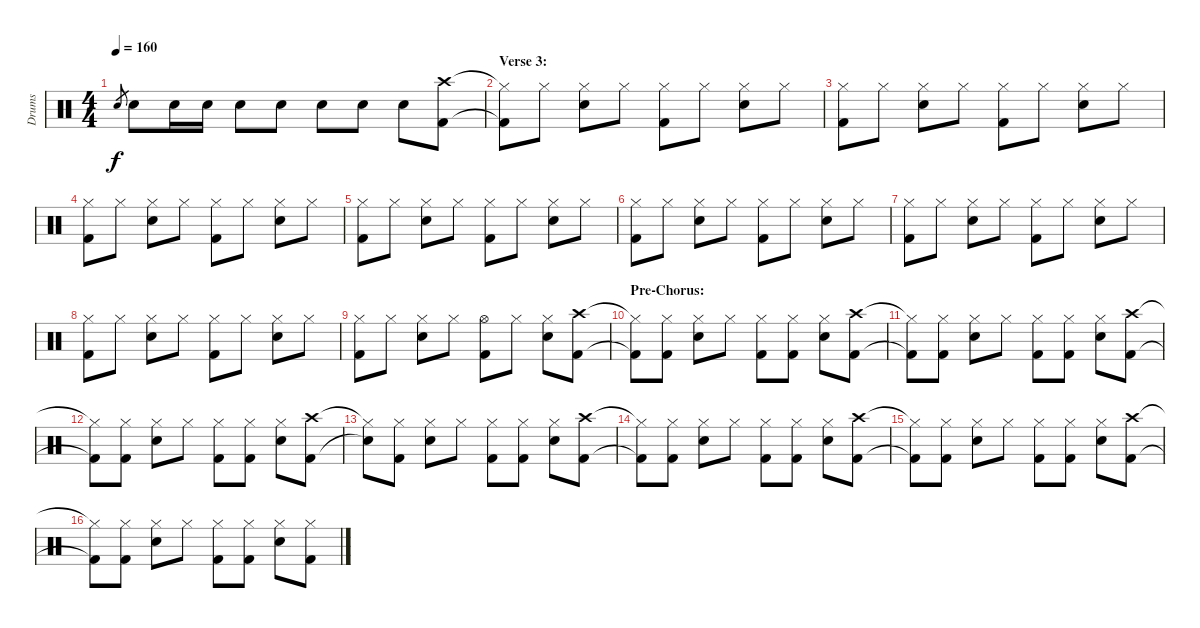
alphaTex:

\track ("Drums" "Drums") {instrument percussion}
\staff {score}
\articulation defaults
\ts (4 4)
\tempo 160
\clef neutral
\ks c "Electric Snare (hit)".8{gr dy f} "Electric Snare (hit)".8 "Electric Snare (hit)".16 "Electric Snare (hit)".16 "Electric Snare (hit)".8 "Electric Snare (hit)".8 "Electric Snare (hit)".8 "Electric Snare (hit)".8 "Electric Snare (hit)".8
("Crash high (hit)" "Kick (hit) 2").8 |
\section ("" "Verse 3:")
("Hi-Hat (closed)"{t} "Kick (hit) 2"{t}).8 "Hi-Hat (closed)".8 ("Hi-Hat (closed)" "Electric Snare (hit)").8 "Hi-Hat (closed)".8 ("Hi-Hat (closed)" "Kick (hit) 2").8 "Hi-Hat (closed)".8 ("Hi-Hat (closed)" "Electric Snare (hit)").8 "Hi-Hat (closed)".8 |
("Hi-Hat (closed)" "Kick (hit) 2").8 "Hi-Hat (closed)".8 ("Hi-Hat (closed)" "Electric Snare (hit)").8 "Hi-Hat (closed)".8 ("Hi-Hat (closed)" "Kick (hit) 2").8 "Hi-Hat (closed)".8 ("Hi-Hat (closed)" "Electric Snare (hit)").8 "Hi-Hat (closed)".8 |
("Hi-Hat (closed)" "Kick (hit) 2").8 "Hi-Hat (closed)".8 ("Hi-Hat (closed)" "Electric Snare (hit)").8 "Hi-Hat (closed)".8 ("Hi-Hat (closed)" "Kick (hit) 2").8 "Hi-Hat (closed)".8 ("Hi-Hat (closed)" "Electric Snare (hit)").8 "Hi-Hat (closed)".8 |
("Hi-Hat (closed)" "Kick (hit) 2").8 "Hi-Hat (closed)".8 ("Hi-Hat (closed)" "Electric Snare (hit)").8 "Hi-Hat (closed)".8 ("Hi-Hat (closed)" "Kick (hit) 2").8 "Hi-Hat (closed)".8 ("Hi-Hat (closed)" "Electric Snare (hit)").8 "Hi-Hat (closed)".8 |
("Hi-Hat (closed)" "Kick (hit) 2").8 "Hi-Hat (closed)".8 ("Hi-Hat (closed)" "Electric Snare (hit)").8 "Hi-Hat (closed)".8 ("Hi-Hat (closed)" "Kick (hit) 2").8 "Hi-Hat (closed)".8 ("Hi-Hat (closed)" "Electric Snare (hit)").8 "Hi-Hat (closed)".8 |
("Hi-Hat (closed)" "Kick (hit) 2").8 "Hi-Hat (closed)".8 ("Hi-Hat (closed)" "Electric Snare (hit)").8 "Hi-Hat (closed)".8 ("Hi-Hat (closed)" "Kick (hit) 2").8 "Hi-Hat (closed)".8 ("Hi-Hat (closed)" "Electric Snare (hit)").8 "Hi-Hat (closed)".8 |
("Hi-Hat (closed)" "Kick (hit) 2").8 "Hi-Hat (closed)".8 ("Hi-Hat (closed)" "Electric Snare (hit)").8 "Hi-Hat (closed)".8 ("Hi-Hat (closed)" "Kick (hit) 2").8 "Hi-Hat (closed)".8 ("Hi-Hat (closed)" "Electric Snare (hit)").8 "Hi-Hat (closed)".8 |
("Hi-Hat (closed)" "Kick (hit) 2").8 "Hi-Hat (closed)".8 ("Hi-Hat (closed)" "Electric Snare (hit)").8 "Hi-Hat (closed)".8 ("Hi-Hat (open)" "Kick (hit) 2").8 "Hi-Hat (closed)".8 ("Hi-Hat (closed)" "Electric Snare (hit)").8 ("Crash high (hit)" "Kick (hit) 2").8 |
\section ("" "Pre-Chorus:")
("Hi-Hat (closed)"{t} "Kick (hit) 2"{t}).8 ("Hi-Hat (closed)" "Kick (hit) 2").8 ("Hi-Hat (closed)" "Electric Snare (hit)").8 "Hi-Hat (closed)".8 ("Hi-Hat (closed)" "Kick (hit) 2").8 ("Hi-Hat (closed)" "Kick (hit) 2").8 ("Hi-Hat (closed)" "Electric Snare (hit)").8 ("Crash high (hit)" "Kick (hit) 2").8 |
("Hi-Hat (closed)"{t} "Kick (hit) 2"{t}).8 ("Hi-Hat (closed)" "Kick (hit) 2").8 ("Hi-Hat (closed)" "Electric Snare (hit)").8 "Hi-Hat (closed)".8 ("Hi-Hat (closed)" "Kick (hit) 2").8 ("Hi-Hat (closed)" "Kick (hit) 2").8 ("Hi-Hat (closed)" "Electric Snare (hit)").8 ("Crash high (hit)" "Kick (hit) 2").8 |
("Hi-Hat (closed)"{t} "Kick (hit) 2"{t}).8 ("Hi-Hat (closed)" "Kick (hit) 2").8 ("Hi-Hat (closed)" "Electric Snare (hit)").8 "Hi-Hat (closed)".8 ("Hi-Hat (closed)" "Kick (hit) 2").8 ("Hi-Hat (closed)" "Kick (hit) 2").8 ("Hi-Hat (closed)" "Electric Snare (hit)").8 ("Crash high (hit)" "Kick (hit) 2").8 |
("Hi-Hat (closed)"{t} "Snare (hit)"{t}).8 ("Hi-Hat (closed)" "Kick (hit) 2").8 ("Hi-Hat (closed)" "Electric Snare (hit)").8 "Hi-Hat (closed)".8 ("Hi-Hat (closed)" "Kick (hit) 2").8 ("Hi-Hat (closed)" "Kick (hit) 2").8 ("Hi-Hat (closed)" "Electric Snare (hit)").8 ("Crash high (hit)" "Kick (hit) 2").8 |
("Hi-Hat (closed)"{t} "Kick (hit) 2"{t}).8 ("Hi-Hat (closed)" "Kick (hit) 2").8 ("Hi-Hat (closed)" "Electric Snare (hit)").8 "Hi-Hat (closed)".8 ("Hi-Hat (closed)" "Kick (hit) 2").8 ("Hi-Hat (closed)" "Kick (hit) 2").8 ("Hi-Hat (closed)" "Electric Snare (hit)").8 ("Crash high (hit)" "Kick (hit) 2").8 |
("Hi-Hat (closed)"{t} "Kick (hit) 2"{t}).8 ("Hi-Hat (closed)" "Kick (hit) 2").8 ("Hi-Hat (closed)" "Electric Snare (hit)").8 "Hi-Hat (closed)".8 ("Hi-Hat (closed)" "Kick (hit) 2").8 ("Hi-Hat (closed)" "Kick (hit) 2").8 ("Hi-Hat (closed)" "Electric Snare (hit)").8 ("Crash high (hit)" "Kick (hit) 2").8 |
("Hi-Hat (closed)"{t} "Kick (hit) 2"{t}).8 ("Hi-Hat (closed)" "Kick (hit) 2").8 ("Hi-Hat (closed)" "Electric Snare (hit)").8 "Hi-Hat (closed)".8 ("Hi-Hat (closed)" "Kick (hit) 2").8 ("Hi-Hat (closed)" "Kick (hit) 2").8 ("Hi-Hat (closed)" "Electric Snare (hit)").8 ("Hi-Hat (closed)" "Kick (hit) 2").8
